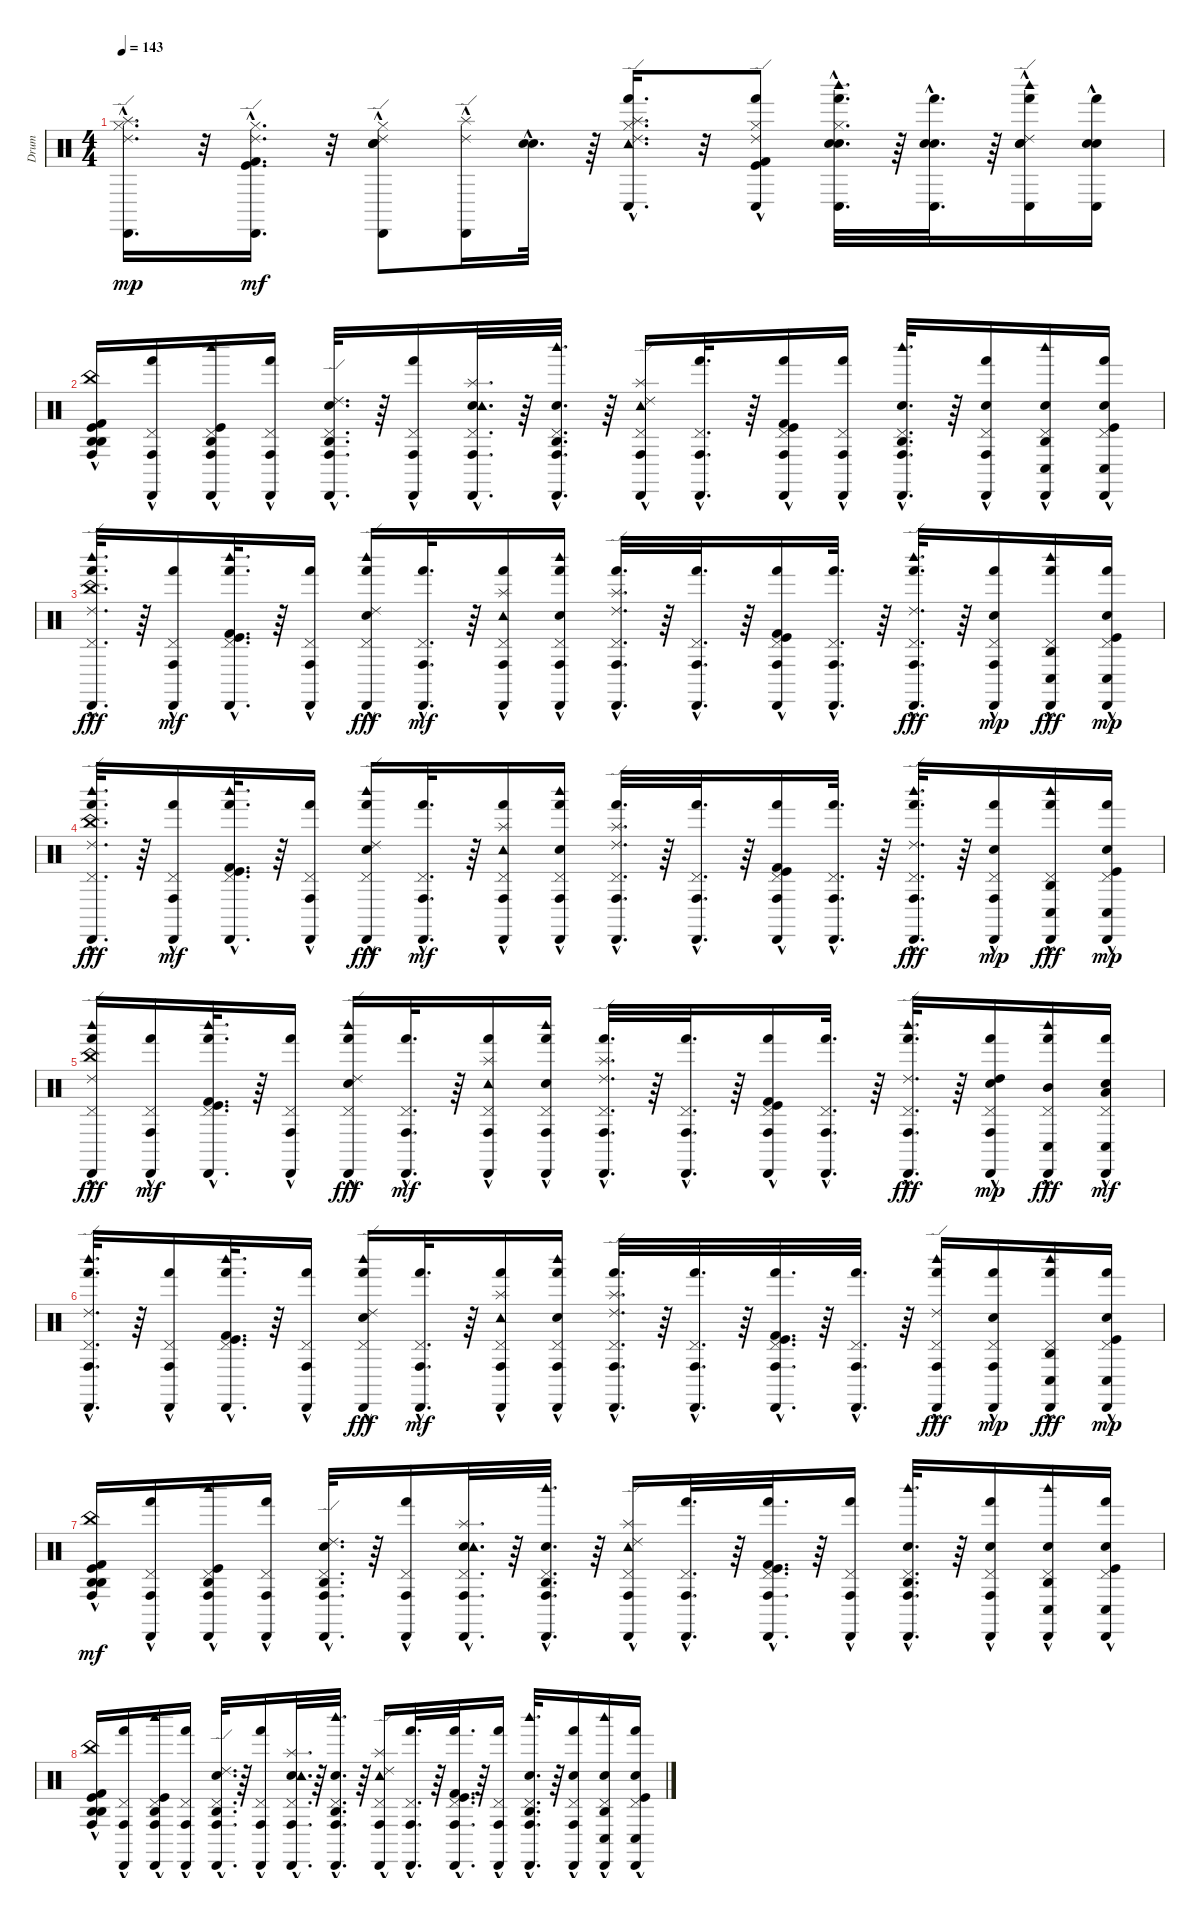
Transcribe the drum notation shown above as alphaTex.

\track ("Drum" "Drum") {instrument percussion}
\staff {score}
\articulation defaults
\ts (4 4)
\tempo 143
\clef neutral
\ks c
("Hi-Hat (closed)"{hac} "Ride (edge) 2"{hac} "Cabasa (hit)"{hac} "Splash (hit)"{hac}).16{d dy mp} r.32 ("Kick (hit)"{hac} "Hi-Hat (closed)"{hac} "Kick (hit) 2"{hac} "Ride (edge) 2"{hac} "Cabasa (hit)"{hac}).16{d dy mf} r.32 ("Snare (hit) 2" "Hi-Hat (closed)" "Electric Snare (hit)" "Ride (edge) 2"{hac} "Cabasa (hit)"{hac}).8 ("Splash (hit)"{hac} "Ride (edge) 2"{hac} "Cabasa (hit)").16 ("Snare (hit) 2"{hac} "Electric Snare (hit)"{hac}).32{d} r.64 ("Hand (hit)"{hac} "Conga low (hit)"{hac} "Hi-Hat (closed)"{hac} "Splash (hit)"{hac} "Tambourine (hit)"{hac} "Ride (edge) 2"{hac}).16{d} r.32 ("Hand (hit)"{hac} "Conga low (hit)"{hac} "Kick (hit)"{hac} "Hi-Hat (closed)"{hac} "Kick (hit) 2"{hac} "Ride (edge) 2"{hac}).8 ("Woodblock high (hit)"{hac} "Hand (hit)"{hac} "Conga low (hit)"{hac} "Snare (hit) 2"{hac} "Electric Snare (hit)"{hac} "Hi-Hat (closed)"{hac}).32{d} r.64 ("Hand (hit)"{hac} "Conga low (hit)"{hac} "Snare (hit) 2"{hac} "Electric Snare (hit)"{hac}).32{d} r.64 ("Woodblock high (hit)" "Hand (hit)"{hac} "Conga low (hit)"{hac} "Snare (hit) 2"{hac} "Electric Snare (hit)"{hac} "Ride (edge) 2").16 ("Hand (hit)"{hac} "Conga low (hit)"{hac} "Snare (hit) 2"{hac} "Electric Snare (hit)"{hac}).16 |
("China (hit)"{hac} "Kick (hit)"{hac} "Kick (hit) 2" "Agogo high (hit)"{hac} "Agogo high (hit)"{hac} "Conga high (hit)"{hac}).16 ("Conga high (hit)"{hac} "Cabasa (hit)"{hac} "Pedal Hi-Hat (hit)"{hac} "Hand (hit)"{hac}).16 ("Agogo high (hit)"{hac} "Conga high (hit)"{hac} "Cabasa (hit)"{hac} "Kick (hit)"{hac} "Pedal Hi-Hat (hit)"{hac} "Woodblock high (hit)").16 ("Conga high (hit)"{hac} "Cabasa (hit)"{hac} "Pedal Hi-Hat (hit)"{hac} "Hand (hit)"{hac}).16 ("Agogo high (hit)"{hac} "Conga high (hit)"{hac} "Cabasa (hit)"{hac} "Snare (hit) 2"{hac} "Pedal Hi-Hat (hit)"{hac} "Ride (edge) 2"{hac}).32{d} r.64 ("Conga high (hit)"{hac} "Cabasa (hit)"{hac} "Pedal Hi-Hat (hit)"{hac} "Hand (hit)"{hac}).16 ("Snare (hit) 2"{hac} "Tambourine (hit)"{hac} "Splash (hit)"{hac} "Conga high (hit)"{hac} "Cabasa (hit)"{hac} "Pedal Hi-Hat (hit)"{hac}).32{d} r.64 ("Agogo high (hit)"{hac} "Conga high (hit)"{hac} "Cabasa (hit)"{hac} "Snare (hit) 2"{hac} "Pedal Hi-Hat (hit)"{hac} "Woodblock high (hit)"{hac}).32{d} r.64 ("Tambourine (hit)"{hac} "Splash (hit)"{hac} "Conga high (hit)"{hac} "Cabasa (hit)"{hac} "Pedal Hi-Hat (hit)"{hac} "Ride (edge) 2").16 ("Conga high (hit)"{hac} "Cabasa (hit)"{hac} "Pedal Hi-Hat (hit)"{hac} "Hand (hit)"{hac}).32{d} r.64 ("Conga high (hit)"{hac} "Cabasa (hit)"{hac} "Kick (hit)"{hac} "Pedal Hi-Hat (hit)"{hac} "Kick (hit) 2"{hac} "Hand (hit)"{hac}).16 ("Conga high (hit)"{hac} "Cabasa (hit)"{hac} "Pedal Hi-Hat (hit)"{hac} "Hand (hit)"{hac}).16 ("Snare (hit) 2"{hac} "Agogo high (hit)"{hac} "Woodblock high (hit)"{hac} "Conga high (hit)"{hac} "Cabasa (hit)"{hac} "Pedal Hi-Hat (hit)"{hac}).32{d} r.64 ("Snare (hit) 2"{hac} "Conga high (hit)"{hac} "Cabasa (hit)"{hac} "Pedal Hi-Hat (hit)"{hac} "Hand (hit)"{hac}).16 ("Snare (hit) 2"{hac} "Agogo high (hit)"{hac} "Woodblock high (hit)"{hac} "Conga low (hit)"{hac} "Cabasa (hit)"{hac} "Pedal Hi-Hat (hit)"{hac}).16 ("Kick (hit)"{hac} "Conga low (hit)"{hac} "Cabasa (hit)"{hac} "Snare (hit) 2"{hac} "Pedal Hi-Hat (hit)"{hac} "Hand (hit)"{hac}).16 |
("China (hit)"{hac} "Hand (hit)"{hac} "Woodblock high (hit)"{hac} "Ride (edge) 2"{hac} "Pedal Hi-Hat (hit)"{hac} "Cabasa (hit)"{hac}).32{d dy fff} r.64 ("Hand (hit)"{hac} "Pedal Hi-Hat (hit)"{hac} "Cabasa (hit)"{hac} "Conga high (hit)"{hac}).16{dy mf} ("Hand (hit)"{hac} "Kick (hit) 2"{hac} "Woodblock high (hit)"{hac} "Pedal Hi-Hat (hit)"{hac} "Kick (hit)"{hac} "Cabasa (hit)"{hac}).32{d} r.64 ("Hand (hit)"{hac} "Pedal Hi-Hat (hit)"{hac} "Cabasa (hit)"{hac} "Conga high (hit)"{hac}).16 ("Hand (hit)"{hac} "Woodblock high (hit)"{hac} "Ride (edge) 2"{hac} "Pedal Hi-Hat (hit)"{hac} "Snare (hit) 2" "Cabasa (hit)"{hac}).16{dy fff} ("Hand (hit)"{hac} "Pedal Hi-Hat (hit)"{hac} "Cabasa (hit)"{hac} "Conga high (hit)"{hac}).32{d dy mf} r.64 ("Hand (hit)"{hac} "Pedal Hi-Hat (hit)"{hac} "Cabasa (hit)"{hac} "Conga high (hit)"{hac} "Splash (hit)"{hac} "Tambourine (hit)").16 ("Hand (hit)"{hac} "Woodblock high (hit)"{hac} "Pedal Hi-Hat (hit)"{hac} "Snare (hit) 2" "Cabasa (hit)"{hac} "Conga high (hit)"{hac}).16 ("Hand (hit)"{hac} "Ride (edge) 2"{hac} "Pedal Hi-Hat (hit)"{hac} "Cabasa (hit)"{hac} "Conga high (hit)"{hac} "Splash (hit)"{hac}).32{d} r.64 ("Hand (hit)"{hac} "Pedal Hi-Hat (hit)"{hac} "Cabasa (hit)"{hac} "Conga high (hit)"{hac}).32{d} r.64 ("Hand (hit)"{hac} "Kick (hit) 2"{hac} "Pedal Hi-Hat (hit)"{hac} "Kick (hit)"{hac} "Cabasa (hit)"{hac} "Conga high (hit)"{hac}).16 ("Hand (hit)"{hac} "Pedal Hi-Hat (hit)"{hac} "Cabasa (hit)"{hac} "Conga high (hit)"{hac}).32{d} r.64 ("Hand (hit)"{hac} "Ride (edge) 2"{hac} "Pedal Hi-Hat (hit)"{hac} "Cabasa (hit)"{hac} "Conga high (hit)"{hac} "Woodblock high (hit)"{hac}).32{d dy fff} r.64 ("Hand (hit)"{hac} "Pedal Hi-Hat (hit)"{hac} "Cabasa (hit)"{hac} "Conga high (hit)"{hac} "Snare (hit) 2"{hac}).16{dy mp} ("Hand (hit)"{hac} "Pedal Hi-Hat (hit)"{hac} "Cabasa (hit)"{hac} "Conga low (hit)"{hac} "Woodblock high (hit)"{hac} "Agogo high (hit)"{hac}).16{dy fff} ("Hand (hit)"{hac} "Pedal Hi-Hat (hit)"{hac} "Snare (hit) 2"{hac} "Cabasa (hit)"{hac} "Conga low (hit)"{hac} "Kick (hit)"{hac}).16{dy mp} |
("China (hit)"{hac} "Hand (hit)"{hac} "Woodblock high (hit)"{hac} "Ride (edge) 2"{hac} "Pedal Hi-Hat (hit)"{hac} "Cabasa (hit)"{hac}).32{d dy fff} r.64 ("Hand (hit)"{hac} "Pedal Hi-Hat (hit)"{hac} "Cabasa (hit)"{hac} "Conga high (hit)"{hac}).16{dy mf} ("Hand (hit)"{hac} "Kick (hit) 2"{hac} "Woodblock high (hit)"{hac} "Pedal Hi-Hat (hit)"{hac} "Kick (hit)"{hac} "Cabasa (hit)"{hac}).32{d} r.64 ("Hand (hit)"{hac} "Pedal Hi-Hat (hit)"{hac} "Cabasa (hit)"{hac} "Conga high (hit)"{hac}).16 ("Hand (hit)"{hac} "Woodblock high (hit)"{hac} "Ride (edge) 2"{hac} "Pedal Hi-Hat (hit)"{hac} "Snare (hit) 2" "Cabasa (hit)"{hac}).16{dy fff} ("Hand (hit)"{hac} "Pedal Hi-Hat (hit)"{hac} "Cabasa (hit)"{hac} "Conga high (hit)"{hac}).32{d dy mf} r.64 ("Hand (hit)"{hac} "Pedal Hi-Hat (hit)"{hac} "Cabasa (hit)"{hac} "Conga high (hit)"{hac} "Splash (hit)"{hac} "Tambourine (hit)").16 ("Hand (hit)"{hac} "Woodblock high (hit)"{hac} "Pedal Hi-Hat (hit)"{hac} "Snare (hit) 2" "Cabasa (hit)"{hac} "Conga high (hit)"{hac}).16 ("Hand (hit)"{hac} "Ride (edge) 2"{hac} "Pedal Hi-Hat (hit)"{hac} "Cabasa (hit)"{hac} "Conga high (hit)"{hac} "Splash (hit)"{hac}).32{d} r.64 ("Hand (hit)"{hac} "Pedal Hi-Hat (hit)"{hac} "Cabasa (hit)"{hac} "Conga high (hit)"{hac}).32{d} r.64 ("Hand (hit)"{hac} "Kick (hit) 2"{hac} "Pedal Hi-Hat (hit)"{hac} "Kick (hit)"{hac} "Cabasa (hit)"{hac} "Conga high (hit)"{hac}).16 ("Hand (hit)"{hac} "Pedal Hi-Hat (hit)"{hac} "Cabasa (hit)"{hac} "Conga high (hit)"{hac}).32{d} r.64 ("Hand (hit)"{hac} "Ride (edge) 2"{hac} "Pedal Hi-Hat (hit)"{hac} "Cabasa (hit)"{hac} "Conga high (hit)"{hac} "Woodblock high (hit)"{hac}).32{d dy fff} r.64 ("Hand (hit)"{hac} "Pedal Hi-Hat (hit)"{hac} "Cabasa (hit)"{hac} "Conga high (hit)"{hac} "Snare (hit) 2"{hac}).16{dy mp} ("Hand (hit)"{hac} "Pedal Hi-Hat (hit)"{hac} "Cabasa (hit)"{hac} "Conga low (hit)"{hac} "Woodblock high (hit)"{hac} "Agogo high (hit)").16{dy fff} ("Hand (hit)"{hac} "Pedal Hi-Hat (hit)"{hac} "Snare (hit) 2"{hac} "Cabasa (hit)"{hac} "Conga low (hit)"{hac} "Kick (hit)"{hac}).16{dy mp} |
("China (hit)" "Hand (hit)"{hac} "Woodblock high (hit)"{hac} "Ride (edge) 2"{hac} "Pedal Hi-Hat (hit)"{hac} "Cabasa (hit)"{hac}).16{dy fff} ("Hand (hit)"{hac} "Pedal Hi-Hat (hit)"{hac} "Cabasa (hit)"{hac} "Conga high (hit)"{hac}).16{dy mf} ("Hand (hit)"{hac} "Kick (hit) 2"{hac} "Woodblock high (hit)"{hac} "Pedal Hi-Hat (hit)"{hac} "Kick (hit)"{hac} "Cabasa (hit)"{hac}).32{d} r.64 ("Hand (hit)"{hac} "Pedal Hi-Hat (hit)"{hac} "Cabasa (hit)"{hac} "Conga high (hit)"{hac}).16 ("Hand (hit)"{hac} "Woodblock high (hit)"{hac} "Ride (edge) 2"{hac} "Pedal Hi-Hat (hit)"{hac} "Snare (hit) 2" "Cabasa (hit)"{hac}).16{dy fff} ("Hand (hit)"{hac} "Pedal Hi-Hat (hit)"{hac} "Cabasa (hit)"{hac} "Conga high (hit)"{hac}).32{d dy mf} r.64 ("Hand (hit)"{hac} "Pedal Hi-Hat (hit)"{hac} "Cabasa (hit)"{hac} "Conga high (hit)"{hac} "Splash (hit)"{hac} "Tambourine (hit)").16 ("Hand (hit)"{hac} "Woodblock high (hit)"{hac} "Pedal Hi-Hat (hit)"{hac} "Snare (hit) 2" "Cabasa (hit)"{hac} "Conga high (hit)"{hac}).16 ("Hand (hit)"{hac} "Ride (edge) 2"{hac} "Pedal Hi-Hat (hit)"{hac} "Cabasa (hit)"{hac} "Conga high (hit)"{hac} "Splash (hit)"{hac}).32{d} r.64 ("Hand (hit)"{hac} "Pedal Hi-Hat (hit)"{hac} "Cabasa (hit)"{hac} "Conga high (hit)"{hac}).32{d} r.64 ("Hand (hit)"{hac} "Kick (hit) 2"{hac} "Pedal Hi-Hat (hit)"{hac} "Kick (hit)"{hac} "Cabasa (hit)"{hac} "Conga high (hit)"{hac}).16 ("Hand (hit)"{hac} "Pedal Hi-Hat (hit)"{hac} "Cabasa (hit)"{hac} "Conga high (hit)"{hac}).32{d} r.64 ("Hand (hit)"{hac} "Ride (edge) 2"{hac} "Pedal Hi-Hat (hit)"{hac} "Cabasa (hit)"{hac} "Conga high (hit)"{hac} "Woodblock high (hit)"{hac}).32{d dy fff} r.64 ("High Tom (hit)"{hac} "Hand (hit)"{hac} "Pedal Hi-Hat (hit)"{hac} "Cabasa (hit)"{hac} "Conga high (hit)"{hac} "Snare (hit) 2"{hac}).16{dy mp} ("Mid Tom (hit)" "Hand (hit)"{hac} "Pedal Hi-Hat (hit)"{hac} "Cabasa (hit)"{hac} "Conga low (hit)"{hac} "Woodblock high (hit)"{hac}).16{dy fff} ("Low Tom (hit)" "Hand (hit)"{hac} "Pedal Hi-Hat (hit)"{hac} "Snare (hit) 2"{hac} "Cabasa (hit)"{hac} "Conga low (hit)"{hac}).16{dy mf} |
("Hand (hit)"{hac} "Woodblock high (hit)"{hac} "Ride (edge) 2"{hac} "Pedal Hi-Hat (hit)"{hac} "Cabasa (hit)"{hac} "Conga high (hit)"{hac}).32{d} r.64 ("Hand (hit)"{hac} "Pedal Hi-Hat (hit)"{hac} "Cabasa (hit)"{hac} "Conga high (hit)"{hac}).16 ("Hand (hit)"{hac} "Kick (hit) 2"{hac} "Woodblock high (hit)"{hac} "Pedal Hi-Hat (hit)"{hac} "Kick (hit)"{hac} "Cabasa (hit)"{hac}).32{d} r.64 ("Hand (hit)"{hac} "Pedal Hi-Hat (hit)"{hac} "Cabasa (hit)"{hac} "Conga high (hit)"{hac}).16 ("Hand (hit)"{hac} "Woodblock high (hit)"{hac} "Ride (edge) 2"{hac} "Pedal Hi-Hat (hit)"{hac} "Snare (hit) 2" "Cabasa (hit)"{hac}).16{dy fff} ("Hand (hit)"{hac} "Pedal Hi-Hat (hit)"{hac} "Cabasa (hit)"{hac} "Conga high (hit)"{hac}).32{d dy mf} r.64 ("Hand (hit)"{hac} "Pedal Hi-Hat (hit)"{hac} "Cabasa (hit)"{hac} "Conga high (hit)"{hac} "Splash (hit)"{hac} "Tambourine (hit)").16 ("Hand (hit)"{hac} "Woodblock high (hit)"{hac} "Pedal Hi-Hat (hit)"{hac} "Snare (hit) 2" "Cabasa (hit)"{hac} "Conga high (hit)"{hac}).16 ("Hand (hit)"{hac} "Ride (edge) 2"{hac} "Pedal Hi-Hat (hit)"{hac} "Cabasa (hit)"{hac} "Conga high (hit)"{hac} "Splash (hit)"{hac}).32{d} r.64 ("Hand (hit)"{hac} "Pedal Hi-Hat (hit)"{hac} "Cabasa (hit)"{hac} "Conga high (hit)"{hac}).32{d} r.64 ("Hand (hit)"{hac} "Kick (hit) 2"{hac} "Pedal Hi-Hat (hit)"{hac} "Kick (hit)"{hac} "Cabasa (hit)"{hac} "Conga high (hit)"{hac}).32{d} r.64 ("Hand (hit)"{hac} "Pedal Hi-Hat (hit)"{hac} "Cabasa (hit)"{hac} "Conga high (hit)"{hac}).32{d} r.64 ("Hand (hit)"{hac} "Ride (edge) 2" "Pedal Hi-Hat (hit)"{hac} "Cabasa (hit)"{hac} "Conga high (hit)"{hac} "Woodblock high (hit)"{hac}).16{dy fff} ("Hand (hit)"{hac} "Pedal Hi-Hat (hit)"{hac} "Cabasa (hit)"{hac} "Conga high (hit)"{hac} "Snare (hit) 2"{hac}).16{dy mp} ("Hand (hit)"{hac} "Pedal Hi-Hat (hit)"{hac} "Cabasa (hit)"{hac} "Conga low (hit)"{hac} "Woodblock high (hit)" "Agogo high (hit)"{hac}).16{dy fff} ("Hand (hit)"{hac} "Pedal Hi-Hat (hit)"{hac} "Snare (hit) 2"{hac} "Cabasa (hit)"{hac} "Conga low (hit)"{hac} "Kick (hit)"{hac}).16{dy mp} |
("China (hit)"{hac} "Kick (hit)"{hac} "Kick (hit) 2" "Agogo high (hit)"{hac} "Agogo high (hit)"{hac} "Conga high (hit)"{hac}).16{dy mf} ("Conga high (hit)"{hac} "Cabasa (hit)"{hac} "Pedal Hi-Hat (hit)"{hac} "Hand (hit)"{hac}).16 ("Agogo high (hit)"{hac} "Conga high (hit)"{hac} "Cabasa (hit)"{hac} "Kick (hit)"{hac} "Pedal Hi-Hat (hit)"{hac} "Woodblock high (hit)").16 ("Conga high (hit)"{hac} "Cabasa (hit)"{hac} "Pedal Hi-Hat (hit)"{hac} "Hand (hit)"{hac}).16 ("Agogo high (hit)"{hac} "Conga high (hit)"{hac} "Cabasa (hit)"{hac} "Snare (hit) 2"{hac} "Pedal Hi-Hat (hit)"{hac} "Ride (edge) 2"{hac}).32{d} r.64 ("Conga high (hit)"{hac} "Cabasa (hit)"{hac} "Pedal Hi-Hat (hit)"{hac} "Hand (hit)"{hac}).16 ("Snare (hit) 2"{hac} "Tambourine (hit)"{hac} "Splash (hit)"{hac} "Conga high (hit)"{hac} "Cabasa (hit)"{hac} "Pedal Hi-Hat (hit)"{hac}).32{d} r.64 ("Agogo high (hit)"{hac} "Conga high (hit)"{hac} "Cabasa (hit)"{hac} "Snare (hit) 2"{hac} "Pedal Hi-Hat (hit)"{hac} "Woodblock high (hit)"{hac}).32{d} r.64 ("Tambourine (hit)"{hac} "Splash (hit)"{hac} "Conga high (hit)"{hac} "Cabasa (hit)"{hac} "Pedal Hi-Hat (hit)"{hac} "Ride (edge) 2").16 ("Conga high (hit)"{hac} "Cabasa (hit)"{hac} "Pedal Hi-Hat (hit)"{hac} "Hand (hit)"{hac}).32{d} r.64 ("Conga high (hit)"{hac} "Cabasa (hit)"{hac} "Kick (hit)"{hac} "Pedal Hi-Hat (hit)"{hac} "Kick (hit) 2"{hac} "Hand (hit)"{hac}).32{d} r.64 ("Conga high (hit)"{hac} "Cabasa (hit)"{hac} "Pedal Hi-Hat (hit)"{hac} "Hand (hit)"{hac}).16 ("Snare (hit) 2"{hac} "Agogo high (hit)"{hac} "Woodblock high (hit)"{hac} "Conga high (hit)"{hac} "Cabasa (hit)"{hac} "Pedal Hi-Hat (hit)"{hac}).32{d} r.64 ("Snare (hit) 2"{hac} "Conga high (hit)"{hac} "Cabasa (hit)"{hac} "Pedal Hi-Hat (hit)"{hac} "Hand (hit)"{hac}).16 ("Snare (hit) 2"{hac} "Agogo high (hit)"{hac} "Woodblock high (hit)" "Conga low (hit)"{hac} "Cabasa (hit)"{hac} "Pedal Hi-Hat (hit)"{hac}).16 ("Kick (hit)"{hac} "Conga low (hit)"{hac} "Cabasa (hit)"{hac} "Snare (hit) 2"{hac} "Pedal Hi-Hat (hit)"{hac} "Hand (hit)"{hac}).16 |
("China (hit)"{hac} "Kick (hit)"{hac} "Kick (hit) 2" "Agogo high (hit)"{hac} "Agogo high (hit)"{hac} "Conga high (hit)"{hac}).16 ("Conga high (hit)"{hac} "Cabasa (hit)"{hac} "Pedal Hi-Hat (hit)"{hac} "Hand (hit)"{hac}).16 ("Agogo high (hit)"{hac} "Conga high (hit)"{hac} "Cabasa (hit)"{hac} "Kick (hit)"{hac} "Pedal Hi-Hat (hit)"{hac} "Woodblock high (hit)").16 ("Conga high (hit)"{hac} "Cabasa (hit)"{hac} "Pedal Hi-Hat (hit)"{hac} "Hand (hit)"{hac}).16 ("Agogo high (hit)"{hac} "Conga high (hit)"{hac} "Cabasa (hit)"{hac} "Snare (hit) 2"{hac} "Pedal Hi-Hat (hit)"{hac} "Ride (edge) 2"{hac}).32{d} r.64 ("Conga high (hit)"{hac} "Cabasa (hit)"{hac} "Pedal Hi-Hat (hit)"{hac} "Hand (hit)"{hac}).16 ("Snare (hit) 2"{hac} "Tambourine (hit)"{hac} "Splash (hit)"{hac} "Conga high (hit)"{hac} "Cabasa (hit)"{hac} "Pedal Hi-Hat (hit)"{hac}).32{d} r.64 ("Agogo high (hit)"{hac} "Conga high (hit)"{hac} "Cabasa (hit)"{hac} "Snare (hit) 2"{hac} "Pedal Hi-Hat (hit)"{hac} "Woodblock high (hit)"{hac}).32{d} r.64 ("Tambourine (hit)"{hac} "Splash (hit)"{hac} "Conga high (hit)"{hac} "Cabasa (hit)"{hac} "Pedal Hi-Hat (hit)"{hac} "Ride (edge) 2").16 ("Conga high (hit)"{hac} "Cabasa (hit)"{hac} "Pedal Hi-Hat (hit)"{hac} "Hand (hit)"{hac}).32{d} r.64 ("Conga high (hit)"{hac} "Cabasa (hit)"{hac} "Kick (hit)"{hac} "Pedal Hi-Hat (hit)"{hac} "Kick (hit) 2"{hac} "Hand (hit)"{hac}).32{d} r.64 ("Conga high (hit)"{hac} "Cabasa (hit)"{hac} "Pedal Hi-Hat (hit)"{hac} "Hand (hit)"{hac}).16 ("Snare (hit) 2"{hac} "Agogo high (hit)"{hac} "Woodblock high (hit)"{hac} "Conga high (hit)"{hac} "Cabasa (hit)"{hac} "Pedal Hi-Hat (hit)"{hac}).32{d} r.64 ("Snare (hit) 2"{hac} "Conga high (hit)"{hac} "Cabasa (hit)"{hac} "Pedal Hi-Hat (hit)"{hac} "Hand (hit)"{hac}).16 ("Snare (hit) 2"{hac} "Agogo high (hit)"{hac} "Woodblock high (hit)" "Conga low (hit)"{hac} "Cabasa (hit)"{hac} "Pedal Hi-Hat (hit)"{hac}).16 ("Kick (hit)"{hac} "Conga low (hit)"{hac} "Cabasa (hit)"{hac} "Snare (hit) 2"{hac} "Pedal Hi-Hat (hit)"{hac} "Hand (hit)"{hac}).16
